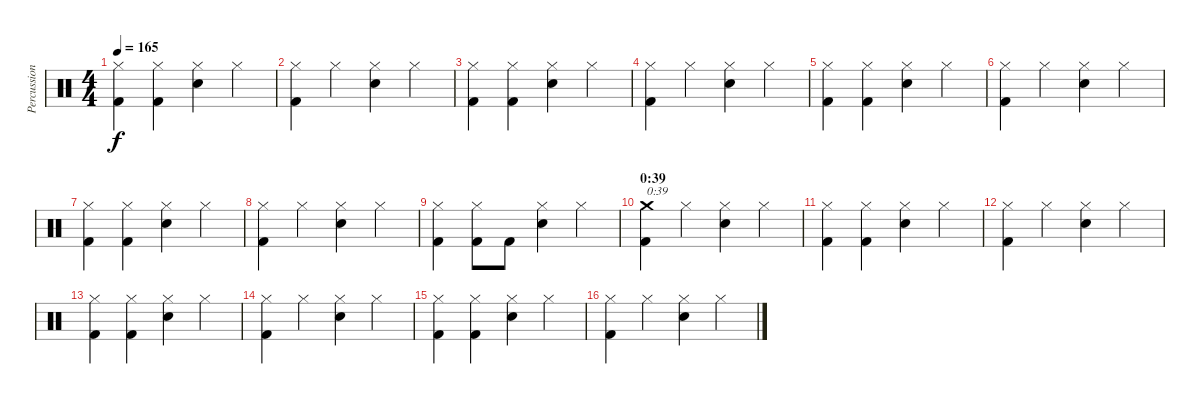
\track ("Percussion" "Percussion") {instrument percussion}
\staff {score}
\articulation defaults
\ts (4 4)
\tempo 165
\clef neutral
\ks c
("Hi-Hat (closed)" "Kick (hit) 2").4{dy f} ("Hi-Hat (closed)" "Kick (hit) 2").4 ("Hi-Hat (closed)" "Electric Snare (hit)").4 "Hi-Hat (closed)".4 |
("Hi-Hat (closed)" "Kick (hit) 2").4 "Hi-Hat (closed)".4 ("Hi-Hat (closed)" "Electric Snare (hit)").4 "Hi-Hat (closed)".4 |
("Hi-Hat (closed)" "Kick (hit) 2").4 ("Hi-Hat (closed)" "Kick (hit) 2").4 ("Hi-Hat (closed)" "Electric Snare (hit)").4 "Hi-Hat (closed)".4 |
("Hi-Hat (closed)" "Kick (hit) 2").4 "Hi-Hat (closed)".4 ("Hi-Hat (closed)" "Electric Snare (hit)").4 "Hi-Hat (closed)".4 |
("Hi-Hat (closed)" "Kick (hit) 2").4 ("Hi-Hat (closed)" "Kick (hit) 2").4 ("Hi-Hat (closed)" "Electric Snare (hit)").4 "Hi-Hat (closed)".4 |
("Hi-Hat (closed)" "Kick (hit) 2").4 "Hi-Hat (closed)".4 ("Hi-Hat (closed)" "Electric Snare (hit)").4 "Hi-Hat (closed)".4 |
("Hi-Hat (closed)" "Kick (hit) 2").4 ("Hi-Hat (closed)" "Kick (hit) 2").4 ("Hi-Hat (closed)" "Electric Snare (hit)").4 "Hi-Hat (closed)".4 |
("Hi-Hat (closed)" "Kick (hit) 2").4 "Hi-Hat (closed)".4 ("Hi-Hat (closed)" "Electric Snare (hit)").4 "Hi-Hat (closed)".4 |
("Hi-Hat (closed)" "Kick (hit) 2").4 ("Hi-Hat (closed)" "Kick (hit) 2").8 "Kick (hit) 2".8 ("Hi-Hat (closed)" "Electric Snare (hit)").4 "Hi-Hat (closed)".4 |
\section ("" "0:39")
("Crash medium (hit)" "Kick (hit) 2").4{txt "0:39"} "Hi-Hat (closed)".4 ("Hi-Hat (closed)" "Electric Snare (hit)").4 "Hi-Hat (closed)".4 |
("Hi-Hat (closed)" "Kick (hit) 2").4 ("Hi-Hat (closed)" "Kick (hit) 2").4 ("Hi-Hat (closed)" "Electric Snare (hit)").4 "Hi-Hat (closed)".4 |
("Hi-Hat (closed)" "Kick (hit) 2").4 "Hi-Hat (closed)".4 ("Hi-Hat (closed)" "Electric Snare (hit)").4 "Hi-Hat (closed)".4 |
("Hi-Hat (closed)" "Kick (hit) 2").4 ("Hi-Hat (closed)" "Kick (hit) 2").4 ("Hi-Hat (closed)" "Electric Snare (hit)").4 "Hi-Hat (closed)".4 |
("Hi-Hat (closed)" "Kick (hit) 2").4 "Hi-Hat (closed)".4 ("Hi-Hat (closed)" "Electric Snare (hit)").4 "Hi-Hat (closed)".4 |
("Hi-Hat (closed)" "Kick (hit) 2").4 ("Hi-Hat (closed)" "Kick (hit) 2").4 ("Hi-Hat (closed)" "Electric Snare (hit)").4 "Hi-Hat (closed)".4 |
("Hi-Hat (closed)" "Kick (hit) 2").4 "Hi-Hat (closed)".4 ("Hi-Hat (closed)" "Electric Snare (hit)").4 "Hi-Hat (closed)".4
